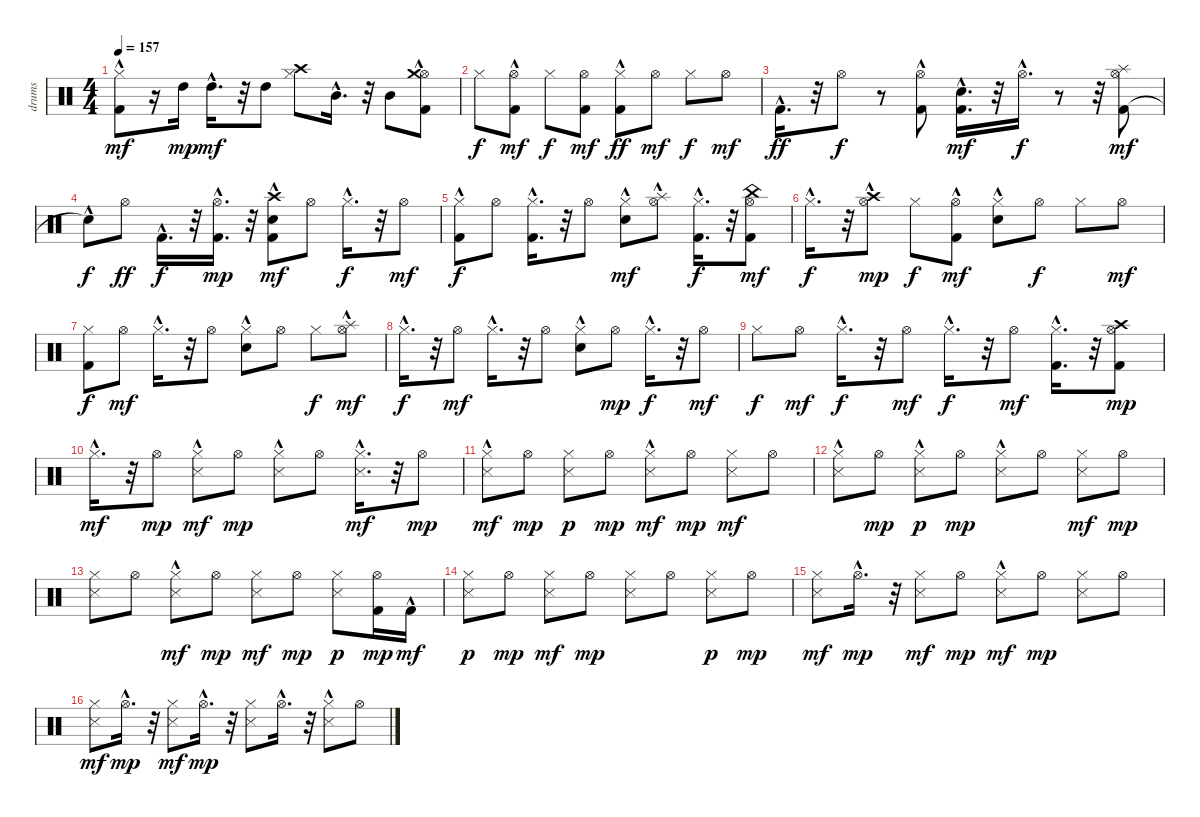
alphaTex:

\track ("drums   " "drums   ") {instrument percussion}
\staff {score}
\articulation defaults
\ts (4 4)
\tempo 157
\clef neutral
\ks c
("Kick (hit) 2" "Hi-Hat (closed)"{hac}).8{dy mf} r.16 "High Tom (hit)".16{dy mp} "High Tom (hit)"{hac}.16{d dy mf} r.32 "High Tom (hit)".8 ("Hi-Hat (closed)" "Crash high (hit)").8 "Mid Tom (hit)"{hac}.16{d} r.32 "Mid Tom (hit)".8 ("Kick (hit) 2"{hac} "Hi-Hat (open)" "Crash medium (hit)").8 |
"Hi-Hat (closed)".8{dy f} ("Kick (hit) 2"{hac} "Hi-Hat (open)").8{dy mf} "Hi-Hat (closed)".8{dy f} ("Kick (hit) 2" "Hi-Hat (open)").8{dy mf} ("Kick (hit) 2"{hac} "Hi-Hat (closed)").8{dy ff} "Hi-Hat (open)".8{dy mf} "Hi-Hat (closed)".8{dy f} "Hi-Hat (open)".8{dy mf} |
"Kick (hit) 2"{hac}.16{d dy ff} r.32 "Hi-Hat (open)".8{dy f} r.8 ("Kick (hit) 2"{hac} "Hi-Hat (open)").8 ("Kick (hit) 2"{hac} "Snare (hit) 2"{hac}).16{d dy mf} r.32 "Hi-Hat (open)"{hac}.16{d dy f} r.8 r.32 ("Kick (hit) 2" "Hi-Hat (open)" "Splash (hit)").8{dy mf} |
"Snare (hit)"{hac t}.8{dy f} "Hi-Hat (open)".8{dy ff} "Kick (hit) 2"{hac}.16{d dy f} r.32 ("Kick (hit) 2"{hac} "Hi-Hat (open)"{hac}).16{d dy mp} r.32 ("Kick (hit) 2"{hac} "Snare (hit) 2" "Crash high (hit)").8{dy mf} "Hi-Hat (open)".8 "Hi-Hat (closed)"{hac}.16{d dy f} r.32 "Hi-Hat (open)".8{dy mf} |
("Kick (hit) 2" "Hi-Hat (closed)"{hac}).8{dy f} "Hi-Hat (open)".8 ("Kick (hit) 2"{hac} "Hi-Hat (closed)"{hac}).16{d} r.32 "Hi-Hat (open)".8 ("Snare (hit) 2" "Hi-Hat (closed)"{hac}).8{dy mf} ("Hi-Hat (open)"{hac} "Splash (hit)").8 ("Kick (hit) 2"{hac} "Hi-Hat (closed)"{hac}).16{d dy f} r.32 ("Kick (hit) 2" "Hi-Hat (open)" "China (hit)").8{dy mf} |
"Hi-Hat (closed)"{hac}.16{d dy f} r.32 ("Hi-Hat (open)" "Crash high (hit)"{hac}).8{dy mp} "Hi-Hat (closed)".8{dy f} ("Kick (hit) 2"{hac} "Hi-Hat (open)").8{dy mf} ("Snare (hit) 2" "Hi-Hat (closed)"{hac}).8 "Hi-Hat (open)".8{dy f} "Hi-Hat (closed)".8 "Hi-Hat (open)".8{dy mf} |
("Kick (hit) 2" "Hi-Hat (closed)").8{dy f} "Hi-Hat (open)".8{dy mf} "Hi-Hat (closed)"{hac}.16{d} r.32 "Hi-Hat (open)".8 ("Snare (hit) 2" "Hi-Hat (closed)"{hac}).8 "Hi-Hat (open)".8 "Hi-Hat (closed)".8{dy f} ("Hi-Hat (open)" "Splash (hit)"{hac}).8{dy mf} |
"Hi-Hat (closed)"{hac}.16{d dy f} r.32 "Hi-Hat (open)".8{dy mf} "Hi-Hat (closed)"{hac}.16{d} r.32 "Hi-Hat (open)".8 ("Electric Snare (hit)" "Hi-Hat (closed)"{hac}).8 "Hi-Hat (open)".8{dy mp} "Hi-Hat (closed)"{hac}.16{d dy f} r.32 "Hi-Hat (open)".8{dy mf} |
"Hi-Hat (closed)".8{dy f} "Hi-Hat (open)".8{dy mf} "Hi-Hat (closed)"{hac}.16{d dy f} r.32 "Hi-Hat (open)".8{dy mf} "Hi-Hat (closed)"{hac}.16{d dy f} r.32 "Hi-Hat (open)".8{dy mf} ("Kick (hit) 2" "Hi-Hat (closed)"{hac}).16{d} r.32 ("Kick (hit) 2" "Hi-Hat (open)" "Crash high (hit)").8{dy mp} |
"Hi-Hat (closed)"{hac}.16{d dy mf} r.32 "Hi-Hat (open)".8{dy mp} ("Snare (side stick) 3"{hac} "Hi-Hat (closed)").8{dy mf} "Hi-Hat (open)".8{dy mp} ("Snare (side stick) 3"{hac} "Hi-Hat (closed)").8 "Hi-Hat (open)".8 ("Snare (side stick) 3"{hac} "Hi-Hat (closed)"{hac}).16{d dy mf} r.32 "Hi-Hat (open)".8{dy mp} |
("Snare (side stick) 3" "Hi-Hat (closed)"{hac}).8{dy mf} "Hi-Hat (open)".8{dy mp} ("Snare (side stick) 3" "Hi-Hat (closed)").8{dy p} "Hi-Hat (open)".8{dy mp} ("Snare (side stick) 3"{hac} "Hi-Hat (closed)").8{dy mf} "Hi-Hat (open)".8{dy mp} ("Snare (side stick) 3" "Hi-Hat (closed)").8{dy mf} "Hi-Hat (open)".8 |
("Snare (side stick) 3" "Hi-Hat (closed)"{hac}).8 "Hi-Hat (open)".8{dy mp} ("Snare (side stick) 3"{hac} "Hi-Hat (closed)").8{dy p} "Hi-Hat (open)".8{dy mp} ("Snare (side stick) 3" "Hi-Hat (closed)"{hac}).8 "Hi-Hat (open)".8 ("Snare (side stick) 3" "Hi-Hat (closed)").8{dy mf} "Hi-Hat (open)".8{dy mp} |
("Snare (side stick) 3" "Hi-Hat (closed)").8 "Hi-Hat (open)".8 ("Snare (side stick) 3"{hac} "Hi-Hat (closed)").8{dy mf} "Hi-Hat (open)".8{dy mp} ("Snare (side stick) 3" "Hi-Hat (closed)").8{dy mf} "Hi-Hat (open)".8{dy mp} ("Snare (side stick) 3" "Hi-Hat (closed)").8{dy p} ("Kick (hit) 2" "Hi-Hat (open)").16{dy mp} "Kick (hit) 2"{hac}.16{dy mf} |
("Snare (side stick) 3" "Hi-Hat (closed)").8{dy p} "Hi-Hat (open)".8{dy mp} ("Snare (side stick) 3" "Hi-Hat (closed)").8{dy mf} "Hi-Hat (open)".8{dy mp} ("Snare (side stick) 3" "Hi-Hat (closed)").8 "Hi-Hat (open)".8 ("Snare (side stick) 3" "Hi-Hat (closed)").8{dy p} "Hi-Hat (open)".8{dy mp} |
("Snare (side stick) 3" "Hi-Hat (closed)").8{dy mf} "Hi-Hat (open)"{hac}.16{d dy mp} r.32 ("Snare (side stick) 3" "Hi-Hat (closed)").8{dy mf} "Hi-Hat (open)".8{dy mp} ("Snare (side stick) 3" "Hi-Hat (closed)"{hac}).8{dy mf} "Hi-Hat (open)".8{dy mp} ("Snare (side stick) 3" "Hi-Hat (closed)").8 "Hi-Hat (open)".8 |
("Snare (side stick) 3" "Hi-Hat (closed)").8{dy mf} "Hi-Hat (open)"{hac}.16{d dy mp} r.32 ("Snare (side stick) 3" "Hi-Hat (closed)").8{dy mf} "Hi-Hat (open)"{hac}.16{d dy mp} r.32 ("Snare (side stick) 3" "Hi-Hat (closed)").8 "Hi-Hat (open)"{hac}.16{d} r.32 ("Snare (side stick) 3" "Hi-Hat (closed)"{hac}).8 "Hi-Hat (open)".8
